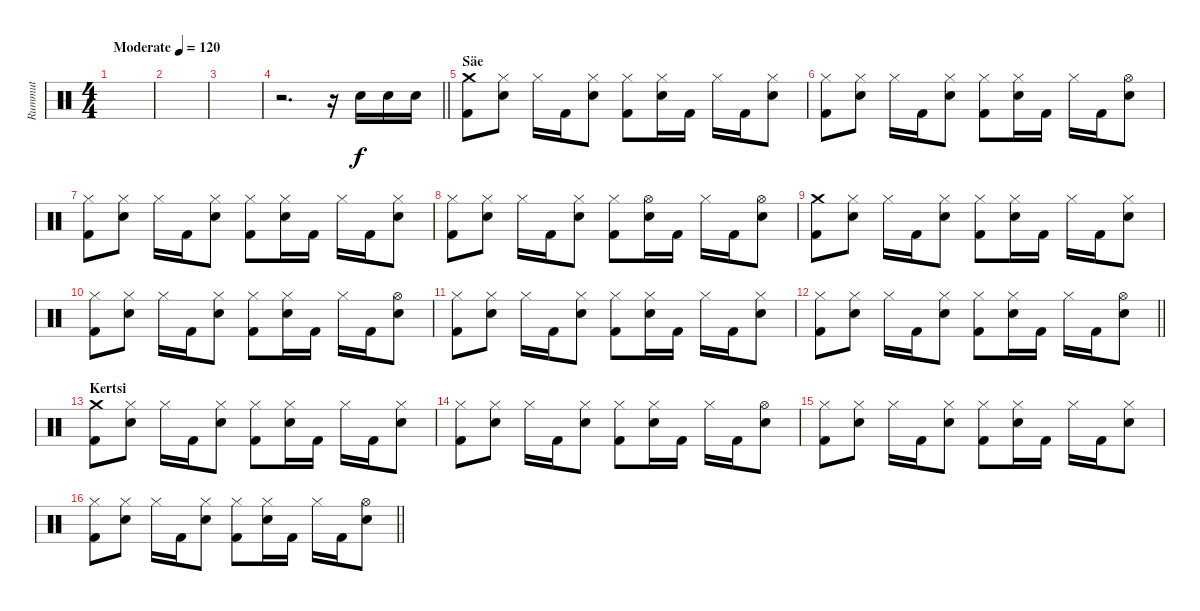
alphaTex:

\track ("Rummut" "Rummut") {instrument percussion}
\staff {score}
\articulation defaults
\ts (4 4)
\tempo (120 "Moderate")
\clef neutral
\ks c
|
|
|
\barLineRight lightlight
r.2{d} r.16 "Snare (hit) 2".16 "Snare (hit) 2".16 "Snare (hit) 2".16 |
\section ("" "Säe")
("Crash medium (hit)" "Kick (hit) 2").8 ("Hi-Hat (closed)" "Snare (hit) 2").8 "Hi-Hat (closed)".16 "Kick (hit) 2".16 ("Hi-Hat (closed)" "Snare (hit) 2").8 ("Hi-Hat (closed)" "Kick (hit) 2").8 ("Hi-Hat (closed)" "Snare (hit) 2").16 "Kick (hit) 2".16 "Hi-Hat (closed)".16 "Kick (hit) 2".16 ("Hi-Hat (closed)" "Snare (hit) 2").8 |
("Hi-Hat (closed)" "Kick (hit) 2").8 ("Hi-Hat (closed)" "Snare (hit) 2").8 "Hi-Hat (closed)".16 "Kick (hit) 2".16 ("Hi-Hat (closed)" "Snare (hit) 2").8 ("Hi-Hat (closed)" "Kick (hit) 2").8 ("Hi-Hat (closed)" "Snare (hit) 2").16 "Kick (hit) 2".16 "Hi-Hat (closed)".16 "Kick (hit) 2".16 ("Hi-Hat (open)" "Snare (hit) 2").8 |
("Hi-Hat (closed)" "Kick (hit) 2").8 ("Hi-Hat (closed)" "Snare (hit) 2").8 "Hi-Hat (closed)".16 "Kick (hit) 2".16 ("Hi-Hat (closed)" "Snare (hit) 2").8 ("Hi-Hat (closed)" "Kick (hit) 2").8 ("Hi-Hat (closed)" "Snare (hit) 2").16 "Kick (hit) 2".16 "Hi-Hat (closed)".16 "Kick (hit) 2".16 ("Hi-Hat (closed)" "Snare (hit) 2").8 |
("Hi-Hat (closed)" "Kick (hit) 2").8 ("Hi-Hat (closed)" "Snare (hit) 2").8 "Hi-Hat (closed)".16 "Kick (hit) 2".16 ("Hi-Hat (closed)" "Snare (hit) 2").8 ("Hi-Hat (closed)" "Kick (hit) 2").8 ("Hi-Hat (open)" "Snare (hit) 2").16 "Kick (hit) 2".16 "Hi-Hat (closed)".16 "Kick (hit) 2".16 ("Hi-Hat (open)" "Snare (hit) 2").8 |
("Crash medium (hit)" "Kick (hit) 2").8 ("Hi-Hat (closed)" "Snare (hit) 2").8 "Hi-Hat (closed)".16 "Kick (hit) 2".16 ("Hi-Hat (closed)" "Snare (hit) 2").8 ("Hi-Hat (closed)" "Kick (hit) 2").8 ("Hi-Hat (closed)" "Snare (hit) 2").16 "Kick (hit) 2".16 "Hi-Hat (closed)".16 "Kick (hit) 2".16 ("Hi-Hat (closed)" "Snare (hit) 2").8 |
("Hi-Hat (closed)" "Kick (hit) 2").8 ("Hi-Hat (closed)" "Snare (hit) 2").8 "Hi-Hat (closed)".16 "Kick (hit) 2".16 ("Hi-Hat (closed)" "Snare (hit) 2").8 ("Hi-Hat (closed)" "Kick (hit) 2").8 ("Hi-Hat (closed)" "Snare (hit) 2").16 "Kick (hit) 2".16 "Hi-Hat (closed)".16 "Kick (hit) 2".16 ("Hi-Hat (open)" "Snare (hit) 2").8 |
("Hi-Hat (closed)" "Kick (hit) 2").8 ("Hi-Hat (closed)" "Snare (hit) 2").8 "Hi-Hat (closed)".16 "Kick (hit) 2".16 ("Hi-Hat (closed)" "Snare (hit) 2").8 ("Hi-Hat (closed)" "Kick (hit) 2").8 ("Hi-Hat (closed)" "Snare (hit) 2").16 "Kick (hit) 2".16 "Hi-Hat (closed)".16 "Kick (hit) 2".16 ("Hi-Hat (closed)" "Snare (hit) 2").8 |
\barLineRight lightlight
("Hi-Hat (closed)" "Kick (hit) 2").8 ("Hi-Hat (closed)" "Snare (hit) 2").8 "Hi-Hat (closed)".16 "Kick (hit) 2".16 ("Hi-Hat (closed)" "Snare (hit) 2").8 ("Hi-Hat (closed)" "Kick (hit) 2").8 ("Hi-Hat (closed)" "Snare (hit) 2").16 "Kick (hit) 2".16 "Hi-Hat (closed)".16 "Kick (hit) 2".16 ("Hi-Hat (open)" "Snare (hit) 2").8 |
\section ("" "Kertsi")
("Crash medium (hit)" "Kick (hit) 2").8 ("Hi-Hat (closed)" "Snare (hit) 2").8 "Hi-Hat (closed)".16 "Kick (hit) 2".16 ("Hi-Hat (closed)" "Snare (hit) 2").8 ("Hi-Hat (closed)" "Kick (hit) 2").8 ("Hi-Hat (closed)" "Snare (hit) 2").16 "Kick (hit) 2".16 "Hi-Hat (closed)".16 "Kick (hit) 2".16 ("Hi-Hat (closed)" "Snare (hit) 2").8 |
("Hi-Hat (closed)" "Kick (hit) 2").8 ("Hi-Hat (closed)" "Snare (hit) 2").8 "Hi-Hat (closed)".16 "Kick (hit) 2".16 ("Hi-Hat (closed)" "Snare (hit) 2").8 ("Hi-Hat (closed)" "Kick (hit) 2").8 ("Hi-Hat (closed)" "Snare (hit) 2").16 "Kick (hit) 2".16 "Hi-Hat (closed)".16 "Kick (hit) 2".16 ("Hi-Hat (open)" "Snare (hit) 2").8 |
("Hi-Hat (closed)" "Kick (hit) 2").8 ("Hi-Hat (closed)" "Snare (hit) 2").8 "Hi-Hat (closed)".16 "Kick (hit) 2".16 ("Hi-Hat (closed)" "Snare (hit) 2").8 ("Hi-Hat (closed)" "Kick (hit) 2").8 ("Hi-Hat (closed)" "Snare (hit) 2").16 "Kick (hit) 2".16 "Hi-Hat (closed)".16 "Kick (hit) 2".16 ("Hi-Hat (closed)" "Snare (hit) 2").8 |
\barLineRight lightlight
("Hi-Hat (closed)" "Kick (hit) 2").8 ("Hi-Hat (closed)" "Snare (hit) 2").8 "Hi-Hat (closed)".16 "Kick (hit) 2".16 ("Hi-Hat (closed)" "Snare (hit) 2").8 ("Hi-Hat (closed)" "Kick (hit) 2").8 ("Hi-Hat (closed)" "Snare (hit) 2").16 "Kick (hit) 2".16 "Hi-Hat (closed)".16 "Kick (hit) 2".16 ("Hi-Hat (open)" "Snare (hit) 2").8
